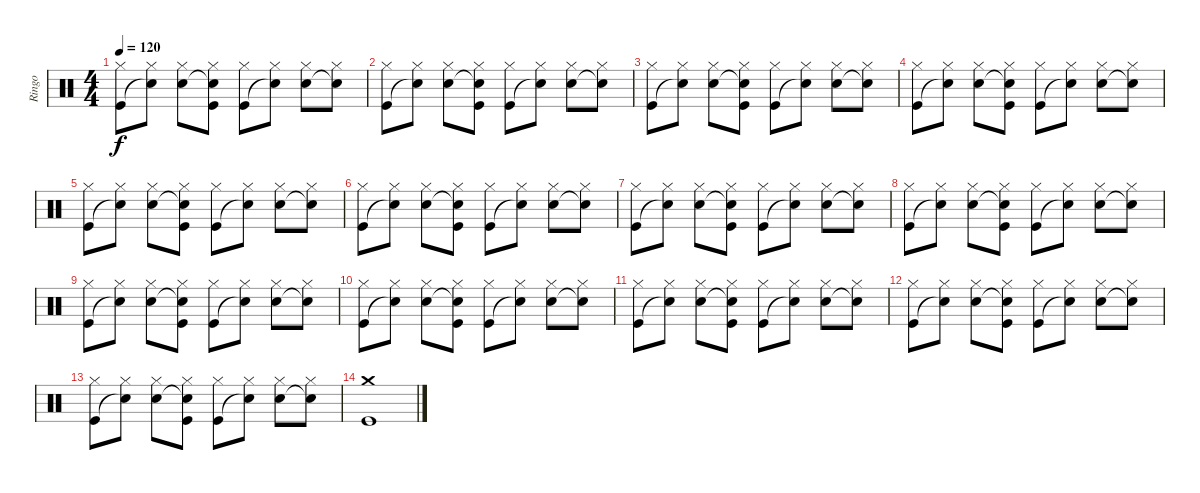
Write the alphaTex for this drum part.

\track ("Ringo" "Ringo") {instrument percussion}
\staff {score}
\articulation defaults
\ts (4 4)
\tempo 120
\clef neutral
\ks c
("Hi-Hat (closed)" "Kick (hit)").8{dy f} ("Hi-Hat (closed)" "Snare (hit)"{t}).8 ("Hi-Hat (closed)" "Snare (hit) 2").8 ("Hi-Hat (closed)" "Snare (hit)"{t} "Kick (hit)").8 ("Hi-Hat (closed)" "Kick (hit)").8 ("Hi-Hat (closed)" "Snare (hit)"{t}).8 ("Hi-Hat (closed)" "Snare (hit) 2").8 ("Hi-Hat (closed)" "Snare (hit)"{t}).8 |
("Hi-Hat (closed)" "Kick (hit)").8 ("Hi-Hat (closed)" "Snare (hit)"{t}).8 ("Hi-Hat (closed)" "Snare (hit) 2").8 ("Hi-Hat (closed)" "Snare (hit)"{t} "Kick (hit)").8 ("Hi-Hat (closed)" "Kick (hit)").8 ("Hi-Hat (closed)" "Snare (hit)"{t}).8 ("Hi-Hat (closed)" "Snare (hit) 2").8 ("Hi-Hat (closed)" "Snare (hit)"{t}).8 |
("Hi-Hat (closed)" "Kick (hit)").8 ("Hi-Hat (closed)" "Snare (hit)"{t}).8 ("Hi-Hat (closed)" "Snare (hit) 2").8 ("Hi-Hat (closed)" "Snare (hit)"{t} "Kick (hit)").8 ("Hi-Hat (closed)" "Kick (hit)").8 ("Hi-Hat (closed)" "Snare (hit)"{t}).8 ("Hi-Hat (closed)" "Snare (hit) 2").8 ("Hi-Hat (closed)" "Snare (hit)"{t}).8 |
("Hi-Hat (closed)" "Kick (hit)").8 ("Hi-Hat (closed)" "Snare (hit)"{t}).8 ("Hi-Hat (closed)" "Snare (hit) 2").8 ("Hi-Hat (closed)" "Snare (hit)"{t} "Kick (hit)").8 ("Hi-Hat (closed)" "Kick (hit)").8 ("Hi-Hat (closed)" "Snare (hit)"{t}).8 ("Hi-Hat (closed)" "Snare (hit) 2").8 ("Hi-Hat (closed)" "Snare (hit)"{t}).8 |
("Hi-Hat (closed)" "Kick (hit)").8 ("Hi-Hat (closed)" "Snare (hit)"{t}).8 ("Hi-Hat (closed)" "Snare (hit) 2").8 ("Hi-Hat (closed)" "Snare (hit)"{t} "Kick (hit)").8 ("Hi-Hat (closed)" "Kick (hit)").8 ("Hi-Hat (closed)" "Snare (hit)"{t}).8 ("Hi-Hat (closed)" "Snare (hit) 2").8 ("Hi-Hat (closed)" "Snare (hit)"{t}).8 |
("Hi-Hat (closed)" "Kick (hit)").8 ("Hi-Hat (closed)" "Snare (hit)"{t}).8 ("Hi-Hat (closed)" "Snare (hit) 2").8 ("Hi-Hat (closed)" "Snare (hit)"{t} "Kick (hit)").8 ("Hi-Hat (closed)" "Kick (hit)").8 ("Hi-Hat (closed)" "Snare (hit)"{t}).8 ("Hi-Hat (closed)" "Snare (hit) 2").8 ("Hi-Hat (closed)" "Snare (hit)"{t}).8 |
("Hi-Hat (closed)" "Kick (hit)").8 ("Hi-Hat (closed)" "Snare (hit)"{t}).8 ("Hi-Hat (closed)" "Snare (hit) 2").8 ("Hi-Hat (closed)" "Snare (hit)"{t} "Kick (hit)").8 ("Hi-Hat (closed)" "Kick (hit)").8 ("Hi-Hat (closed)" "Snare (hit)"{t}).8 ("Hi-Hat (closed)" "Snare (hit) 2").8 ("Hi-Hat (closed)" "Snare (hit)"{t}).8 |
("Hi-Hat (closed)" "Kick (hit)").8 ("Hi-Hat (closed)" "Snare (hit)"{t}).8 ("Hi-Hat (closed)" "Snare (hit) 2").8 ("Hi-Hat (closed)" "Snare (hit)"{t} "Kick (hit)").8 ("Hi-Hat (closed)" "Kick (hit)").8 ("Hi-Hat (closed)" "Snare (hit)"{t}).8 ("Hi-Hat (closed)" "Snare (hit) 2").8 ("Hi-Hat (closed)" "Snare (hit)"{t}).8 |
("Hi-Hat (closed)" "Kick (hit)").8 ("Hi-Hat (closed)" "Snare (hit)"{t}).8 ("Hi-Hat (closed)" "Snare (hit) 2").8 ("Hi-Hat (closed)" "Snare (hit)"{t} "Kick (hit)").8 ("Hi-Hat (closed)" "Kick (hit)").8 ("Hi-Hat (closed)" "Snare (hit)"{t}).8 ("Hi-Hat (closed)" "Snare (hit) 2").8 ("Hi-Hat (closed)" "Snare (hit)"{t}).8 |
("Hi-Hat (closed)" "Kick (hit)").8 ("Hi-Hat (closed)" "Snare (hit)"{t}).8 ("Hi-Hat (closed)" "Snare (hit) 2").8 ("Hi-Hat (closed)" "Snare (hit)"{t} "Kick (hit)").8 ("Hi-Hat (closed)" "Kick (hit)").8 ("Hi-Hat (closed)" "Snare (hit)"{t}).8 ("Hi-Hat (closed)" "Snare (hit) 2").8 ("Hi-Hat (closed)" "Snare (hit)"{t}).8 |
("Hi-Hat (closed)" "Kick (hit)").8 ("Hi-Hat (closed)" "Snare (hit)"{t}).8 ("Hi-Hat (closed)" "Snare (hit) 2").8 ("Hi-Hat (closed)" "Snare (hit)"{t} "Kick (hit)").8 ("Hi-Hat (closed)" "Kick (hit)").8 ("Hi-Hat (closed)" "Snare (hit)"{t}).8 ("Hi-Hat (closed)" "Snare (hit) 2").8 ("Hi-Hat (closed)" "Snare (hit)"{t}).8 |
("Hi-Hat (closed)" "Kick (hit)").8 ("Hi-Hat (closed)" "Snare (hit)"{t}).8 ("Hi-Hat (closed)" "Snare (hit) 2").8 ("Hi-Hat (closed)" "Snare (hit)"{t} "Kick (hit)").8 ("Hi-Hat (closed)" "Kick (hit)").8 ("Hi-Hat (closed)" "Snare (hit)"{t}).8 ("Hi-Hat (closed)" "Snare (hit) 2").8 ("Hi-Hat (closed)" "Snare (hit)"{t}).8 |
("Hi-Hat (closed)" "Kick (hit)").8 ("Hi-Hat (closed)" "Snare (hit)"{t}).8 ("Hi-Hat (closed)" "Snare (hit) 2").8 ("Hi-Hat (closed)" "Snare (hit)"{t} "Kick (hit)").8 ("Hi-Hat (closed)" "Kick (hit)").8 ("Hi-Hat (closed)" "Snare (hit)"{t}).8 ("Hi-Hat (closed)" "Snare (hit) 2").8 ("Hi-Hat (closed)" "Snare (hit)"{t}).8 |
("Crash medium (hit)" "Kick (hit)").1
